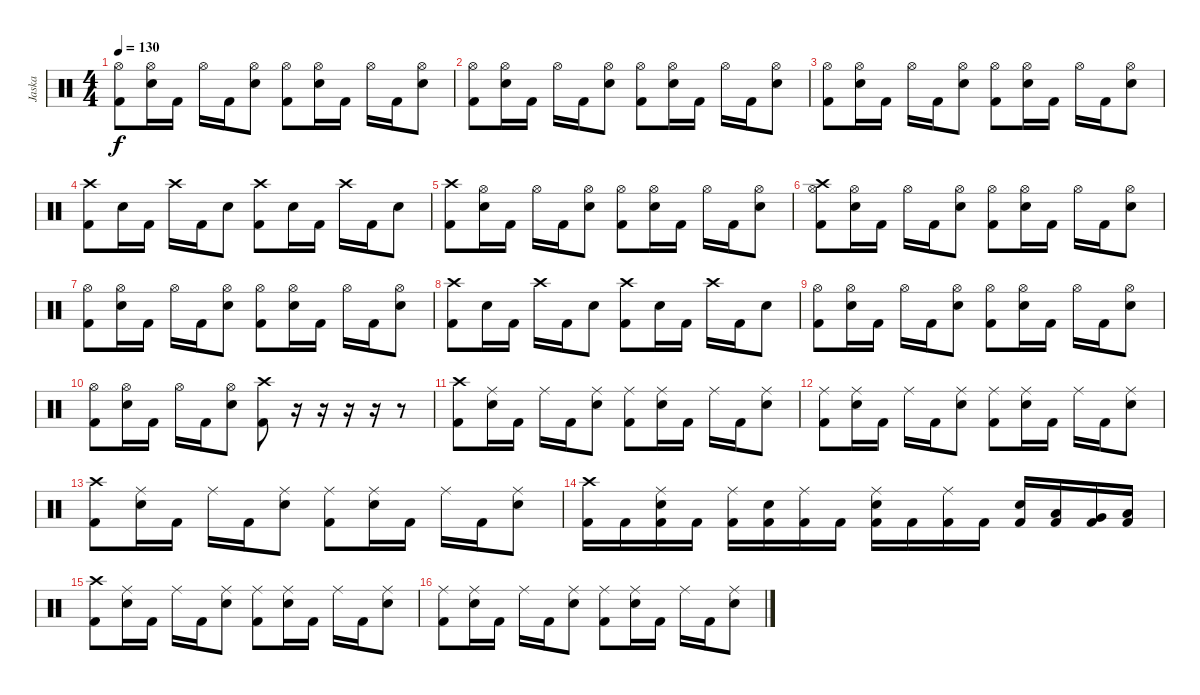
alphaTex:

\track ("Jaska " "Jaska ") {instrument percussion}
\staff {score}
\articulation defaults
\ts (4 4)
\tempo 130
\clef neutral
\ks c
("Hi-Hat (open)" "Kick (hit) 2").8{dy f} ("Hi-Hat (open)" "Electric Snare (hit)").16 "Kick (hit) 2".16 "Hi-Hat (open)".16 "Kick (hit) 2".16 ("Hi-Hat (open)" "Electric Snare (hit)").8 ("Hi-Hat (open)" "Kick (hit) 2").8 ("Hi-Hat (open)" "Electric Snare (hit)").16 "Kick (hit) 2".16 "Hi-Hat (open)".16 "Kick (hit) 2".16 ("Hi-Hat (open)" "Electric Snare (hit)").8 |
("Hi-Hat (open)" "Kick (hit) 2").8 ("Hi-Hat (open)" "Electric Snare (hit)").16 "Kick (hit) 2".16 "Hi-Hat (open)".16 "Kick (hit) 2".16 ("Hi-Hat (open)" "Electric Snare (hit)").8 ("Hi-Hat (open)" "Kick (hit) 2").8 ("Hi-Hat (open)" "Electric Snare (hit)").16 "Kick (hit) 2".16 "Hi-Hat (open)".16 "Kick (hit) 2".16 ("Hi-Hat (open)" "Electric Snare (hit)").8 |
("Hi-Hat (open)" "Kick (hit) 2").8 ("Hi-Hat (open)" "Electric Snare (hit)").16 "Kick (hit) 2".16 "Hi-Hat (open)".16 "Kick (hit) 2".16 ("Hi-Hat (open)" "Electric Snare (hit)").8 ("Hi-Hat (open)" "Kick (hit) 2").8 ("Hi-Hat (open)" "Electric Snare (hit)").16 "Kick (hit) 2".16 "Hi-Hat (open)".16 "Kick (hit) 2".16 ("Hi-Hat (open)" "Electric Snare (hit)").8 |
("Crash high (hit)" "Kick (hit) 2").8 "Electric Snare (hit)".16 "Kick (hit) 2".16 "Crash high (hit)".16 "Kick (hit) 2".16 "Electric Snare (hit)".8 ("Crash high (hit)" "Kick (hit) 2").8 "Electric Snare (hit)".16 "Kick (hit) 2".16 "Crash high (hit)".16 "Kick (hit) 2".16 "Electric Snare (hit)".8 |
("Crash high (hit)" "Kick (hit) 2").8 ("Hi-Hat (open)" "Electric Snare (hit)").16 "Kick (hit) 2".16 "Hi-Hat (open)".16 "Kick (hit) 2".16 ("Hi-Hat (open)" "Electric Snare (hit)").8 ("Hi-Hat (open)" "Kick (hit) 2").8 ("Hi-Hat (open)" "Electric Snare (hit)").16 "Kick (hit) 2".16 "Hi-Hat (open)".16 "Kick (hit) 2".16 ("Hi-Hat (open)" "Electric Snare (hit)").8 |
("Crash high (hit)" "Hi-Hat (open)" "Kick (hit) 2").8 ("Hi-Hat (open)" "Electric Snare (hit)").16 "Kick (hit) 2".16 "Hi-Hat (open)".16 "Kick (hit) 2".16 ("Hi-Hat (open)" "Electric Snare (hit)").8 ("Hi-Hat (open)" "Kick (hit) 2").8 ("Hi-Hat (open)" "Electric Snare (hit)").16 "Kick (hit) 2".16 "Hi-Hat (open)".16 "Kick (hit) 2".16 ("Hi-Hat (open)" "Electric Snare (hit)").8 |
("Hi-Hat (open)" "Kick (hit) 2").8 ("Hi-Hat (open)" "Electric Snare (hit)").16 "Kick (hit) 2".16 "Hi-Hat (open)".16 "Kick (hit) 2".16 ("Hi-Hat (open)" "Electric Snare (hit)").8 ("Hi-Hat (open)" "Kick (hit) 2").8 ("Hi-Hat (open)" "Electric Snare (hit)").16 "Kick (hit) 2".16 "Hi-Hat (open)".16 "Kick (hit) 2".16 ("Hi-Hat (open)" "Electric Snare (hit)").8 |
("Crash high (hit)" "Kick (hit) 2").8 "Electric Snare (hit)".16 "Kick (hit) 2".16 "Crash high (hit)".16 "Kick (hit) 2".16 "Electric Snare (hit)".8 ("Crash high (hit)" "Kick (hit) 2").8 "Electric Snare (hit)".16 "Kick (hit) 2".16 "Crash high (hit)".16 "Kick (hit) 2".16 "Electric Snare (hit)".8 |
("Hi-Hat (open)" "Kick (hit) 2").8 ("Hi-Hat (open)" "Electric Snare (hit)").16 "Kick (hit) 2".16 "Hi-Hat (open)".16 "Kick (hit) 2".16 ("Hi-Hat (open)" "Electric Snare (hit)").8 ("Hi-Hat (open)" "Kick (hit) 2").8 ("Hi-Hat (open)" "Electric Snare (hit)").16 "Kick (hit) 2".16 "Hi-Hat (open)".16 "Kick (hit) 2".16 ("Hi-Hat (open)" "Electric Snare (hit)").8 |
("Hi-Hat (open)" "Kick (hit) 2").8 ("Hi-Hat (open)" "Electric Snare (hit)").16 "Kick (hit) 2".16 "Hi-Hat (open)".16 "Kick (hit) 2".16 ("Hi-Hat (open)" "Electric Snare (hit)").8 ("Crash high (hit)" "Kick (hit) 2").8 r.16 r.16 r.16 r.16 r.8 |
("Crash high (hit)" "Kick (hit) 2").8 ("Ride (middle)" "Electric Snare (hit)").16 "Kick (hit) 2".16 "Ride (middle)".16 "Kick (hit) 2".16 ("Ride (middle)" "Electric Snare (hit)").8 ("Ride (middle)" "Kick (hit) 2").8 ("Ride (middle)" "Electric Snare (hit)").16 "Kick (hit) 2".16 "Ride (middle)".16 "Kick (hit) 2".16 ("Ride (middle)" "Electric Snare (hit)").8 |
("Ride (middle)" "Kick (hit) 2").8 ("Ride (middle)" "Electric Snare (hit)").16 "Kick (hit) 2".16 "Ride (middle)".16 "Kick (hit) 2".16 ("Ride (middle)" "Electric Snare (hit)").8 ("Ride (middle)" "Kick (hit) 2").8 ("Ride (middle)" "Electric Snare (hit)").16 "Kick (hit) 2".16 "Ride (middle)".16 "Kick (hit) 2".16 ("Ride (middle)" "Electric Snare (hit)").8 |
("Crash high (hit)" "Kick (hit) 2").8 ("Ride (middle)" "Electric Snare (hit)").16 "Kick (hit) 2".16 "Ride (middle)".16 "Kick (hit) 2".16 ("Ride (middle)" "Electric Snare (hit)").8 ("Ride (middle)" "Kick (hit) 2").8 ("Ride (middle)" "Electric Snare (hit)").16 "Kick (hit) 2".16 "Ride (middle)".16 "Kick (hit) 2".16 ("Ride (middle)" "Electric Snare (hit)").8 |
("Crash high (hit)" "Kick (hit) 2").16 "Kick (hit) 2".16 ("Ride (middle)" "Electric Snare (hit)" "Kick (hit) 2").16 "Kick (hit) 2".16 ("Ride (middle)" "Kick (hit) 2").16 ("Electric Snare (hit)" "Kick (hit) 2").16 ("Ride (middle)" "Kick (hit) 2").16 "Kick (hit) 2".16 ("Ride (middle)" "Electric Snare (hit)" "Kick (hit) 2").16 "Kick (hit) 2".16 ("Ride (middle)" "Kick (hit) 2").16 "Kick (hit) 2".16 ("Electric Snare (hit)" "Kick (hit) 2").16 ("Low Tom (hit)" "Kick (hit) 2").16 ("Very Low Tom (hit)" "Kick (hit) 2").16 ("Low Floor Tom (hit)" "Kick (hit) 2").16 |
("Crash high (hit)" "Kick (hit) 2").8 ("Ride (middle)" "Electric Snare (hit)").16 "Kick (hit) 2".16 "Ride (middle)".16 "Kick (hit) 2".16 ("Ride (middle)" "Electric Snare (hit)").8 ("Ride (middle)" "Kick (hit) 2").8 ("Ride (middle)" "Electric Snare (hit)").16 "Kick (hit) 2".16 "Ride (middle)".16 "Kick (hit) 2".16 ("Ride (middle)" "Electric Snare (hit)").8 |
("Ride (middle)" "Kick (hit) 2").8 ("Ride (middle)" "Electric Snare (hit)").16 "Kick (hit) 2".16 "Ride (middle)".16 "Kick (hit) 2".16 ("Ride (middle)" "Electric Snare (hit)").8 ("Ride (middle)" "Kick (hit) 2").8 ("Ride (middle)" "Electric Snare (hit)").16 "Kick (hit) 2".16 "Ride (middle)".16 "Kick (hit) 2".16 ("Ride (middle)" "Electric Snare (hit)").8
